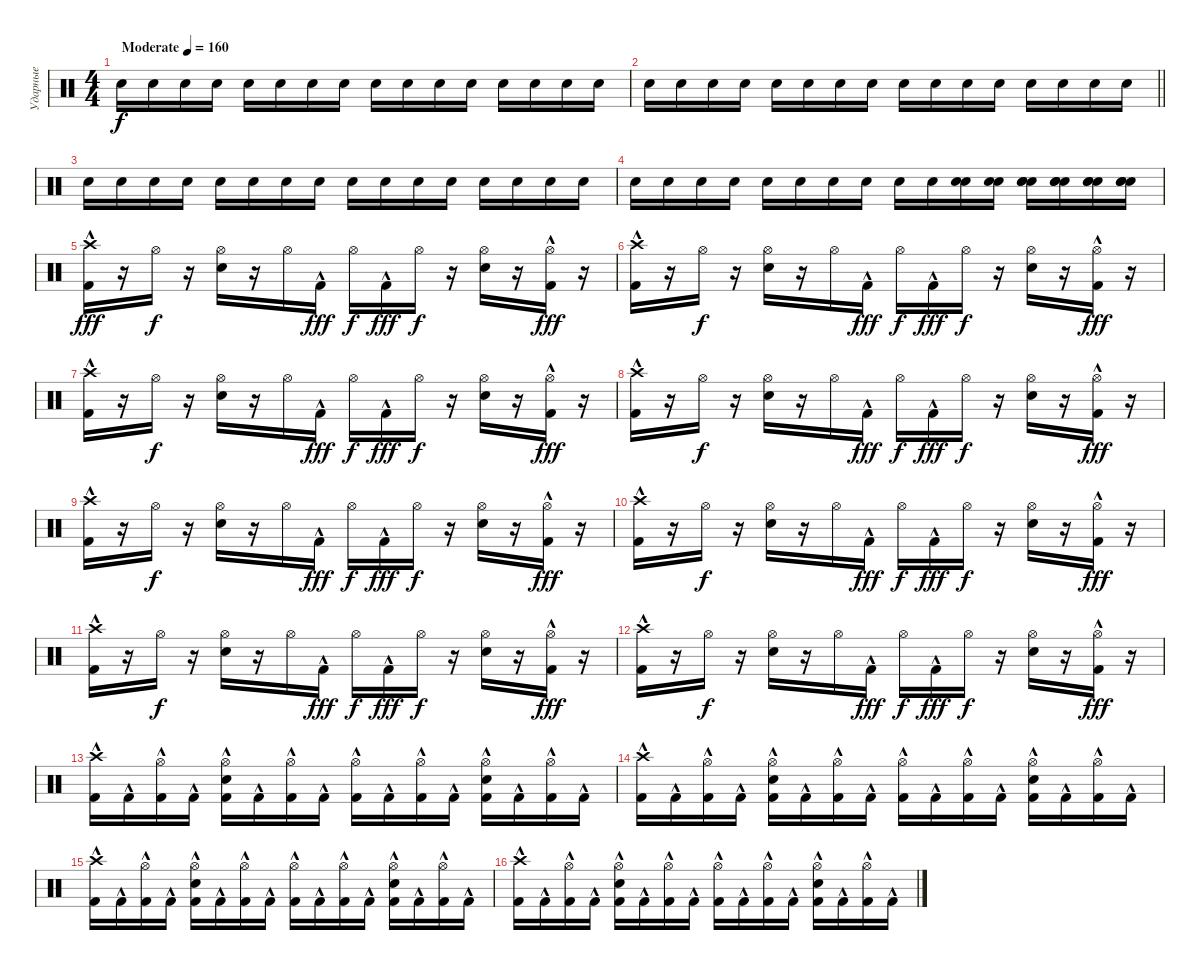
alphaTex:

\track ("Ударные" "Ударные") {instrument percussion}
\staff {score}
\articulation defaults
\ts (4 4)
\tempo (160 "Moderate")
\clef neutral
\ks c "Snare (hit) 2".16{dy f volume 16} "Snare (hit) 2".16 "Snare (hit) 2".16 "Snare (hit) 2".16 "Snare (hit) 2".16 "Snare (hit) 2".16 "Snare (hit) 2".16 "Snare (hit) 2".16 "Snare (hit) 2".16 "Snare (hit) 2".16 "Snare (hit) 2".16 "Snare (hit) 2".16 "Snare (hit) 2".16 "Snare (hit) 2".16 "Snare (hit) 2".16 "Snare (hit) 2".16
|
\barLineRight lightlight "Snare (hit) 2".16 "Snare (hit) 2".16 "Snare (hit) 2".16 "Snare (hit) 2".16 "Snare (hit) 2".16 "Snare (hit) 2".16 "Snare (hit) 2".16 "Snare (hit) 2".16 "Snare (hit) 2".16 "Snare (hit) 2".16 "Snare (hit) 2".16 "Snare (hit) 2".16 "Snare (hit) 2".16 "Snare (hit) 2".16 "Snare (hit) 2".16 "Snare (hit) 2".16
|
"Snare (hit) 2".16 "Snare (hit) 2".16 "Snare (hit) 2".16 "Snare (hit) 2".16 "Snare (hit) 2".16 "Snare (hit) 2".16 "Snare (hit) 2".16 "Snare (hit) 2".16 "Snare (hit) 2".16 "Snare (hit) 2".16 "Snare (hit) 2".16 "Snare (hit) 2".16 "Snare (hit) 2".16 "Snare (hit) 2".16 "Snare (hit) 2".16 "Snare (hit) 2".16 |
"Snare (hit) 2".16 "Snare (hit) 2".16 "Snare (hit) 2".16 "Snare (hit) 2".16 "Snare (hit) 2".16 "Snare (hit) 2".16 "Snare (hit) 2".16 "Snare (hit) 2".16 "Snare (hit) 2".16 "Snare (hit) 2".16 ("Snare (hit) 2" "Snare (hit) 2").16 ("Snare (hit) 2" "Snare (hit) 2").16 ("Snare (hit) 2" "Snare (hit) 2" "Snare (hit) 2").16 ("Snare (hit) 2" "Snare (hit) 2" "Snare (hit) 2").16 ("Snare (hit) 2" "Snare (hit) 2" "Snare (hit) 2").16 ("Snare (hit) 2" "Snare (hit) 2" "Snare (hit) 2").16 |
("Crash high (hit)" "Kick (hit) 2"{hac}).16{dy fff} r.16 "Hi-Hat (open)".16{dy f} r.16 ("Hi-Hat (open)" "Snare (hit) 2").16 r.16 "Hi-Hat (open)".16 "Kick (hit) 2"{hac}.16{dy fff} "Hi-Hat (open)".16{dy f} "Kick (hit) 2"{hac}.16{dy fff} "Hi-Hat (open)".16{dy f} r.16 ("Hi-Hat (open)" "Snare (hit) 2").16 r.16 ("Hi-Hat (open)" "Kick (hit) 2"{hac}).16{dy fff} r.16 |
("Crash high (hit)" "Kick (hit) 2"{hac}).16 r.16 "Hi-Hat (open)".16{dy f} r.16 ("Hi-Hat (open)" "Snare (hit) 2").16 r.16 "Hi-Hat (open)".16 "Kick (hit) 2"{hac}.16{dy fff} "Hi-Hat (open)".16{dy f} "Kick (hit) 2"{hac}.16{dy fff} "Hi-Hat (open)".16{dy f} r.16 ("Hi-Hat (open)" "Snare (hit) 2").16 r.16 ("Hi-Hat (open)" "Kick (hit) 2"{hac}).16{dy fff} r.16 |
("Crash high (hit)" "Kick (hit) 2"{hac}).16 r.16 "Hi-Hat (open)".16{dy f} r.16 ("Hi-Hat (open)" "Snare (hit) 2").16 r.16 "Hi-Hat (open)".16 "Kick (hit) 2"{hac}.16{dy fff} "Hi-Hat (open)".16{dy f} "Kick (hit) 2"{hac}.16{dy fff} "Hi-Hat (open)".16{dy f} r.16 ("Hi-Hat (open)" "Snare (hit) 2").16 r.16 ("Hi-Hat (open)" "Kick (hit) 2"{hac}).16{dy fff} r.16 |
("Crash high (hit)" "Kick (hit) 2"{hac}).16 r.16 "Hi-Hat (open)".16{dy f} r.16 ("Hi-Hat (open)" "Snare (hit) 2").16 r.16 "Hi-Hat (open)".16 "Kick (hit) 2"{hac}.16{dy fff} "Hi-Hat (open)".16{dy f} "Kick (hit) 2"{hac}.16{dy fff} "Hi-Hat (open)".16{dy f} r.16 ("Hi-Hat (open)" "Snare (hit) 2").16 r.16 ("Hi-Hat (open)" "Kick (hit) 2"{hac}).16{dy fff} r.16 |
("Crash high (hit)" "Kick (hit) 2"{hac}).16 r.16 "Hi-Hat (open)".16{dy f} r.16 ("Hi-Hat (open)" "Snare (hit) 2").16 r.16 "Hi-Hat (open)".16 "Kick (hit) 2"{hac}.16{dy fff} "Hi-Hat (open)".16{dy f} "Kick (hit) 2"{hac}.16{dy fff} "Hi-Hat (open)".16{dy f} r.16 ("Hi-Hat (open)" "Snare (hit) 2").16 r.16 ("Hi-Hat (open)" "Kick (hit) 2"{hac}).16{dy fff} r.16 |
("Crash high (hit)" "Kick (hit) 2"{hac}).16 r.16 "Hi-Hat (open)".16{dy f} r.16 ("Hi-Hat (open)" "Snare (hit) 2").16 r.16 "Hi-Hat (open)".16 "Kick (hit) 2"{hac}.16{dy fff} "Hi-Hat (open)".16{dy f} "Kick (hit) 2"{hac}.16{dy fff} "Hi-Hat (open)".16{dy f} r.16 ("Hi-Hat (open)" "Snare (hit) 2").16 r.16 ("Hi-Hat (open)" "Kick (hit) 2"{hac}).16{dy fff} r.16 |
("Crash high (hit)" "Kick (hit) 2"{hac}).16 r.16 "Hi-Hat (open)".16{dy f} r.16 ("Hi-Hat (open)" "Snare (hit) 2").16 r.16 "Hi-Hat (open)".16 "Kick (hit) 2"{hac}.16{dy fff} "Hi-Hat (open)".16{dy f} "Kick (hit) 2"{hac}.16{dy fff} "Hi-Hat (open)".16{dy f} r.16 ("Hi-Hat (open)" "Snare (hit) 2").16 r.16 ("Hi-Hat (open)" "Kick (hit) 2"{hac}).16{dy fff} r.16 |
("Crash high (hit)" "Kick (hit) 2"{hac}).16 r.16 "Hi-Hat (open)".16{dy f} r.16 ("Hi-Hat (open)" "Snare (hit) 2").16 r.16 "Hi-Hat (open)".16 "Kick (hit) 2"{hac}.16{dy fff} "Hi-Hat (open)".16{dy f} "Kick (hit) 2"{hac}.16{dy fff} "Hi-Hat (open)".16{dy f} r.16 ("Hi-Hat (open)" "Snare (hit) 2").16 r.16 ("Hi-Hat (open)" "Kick (hit) 2"{hac}).16{dy fff} r.16 |
("Crash high (hit)" "Kick (hit) 2"{hac}).16 "Kick (hit) 2"{hac}.16 ("Hi-Hat (open)" "Kick (hit) 2"{hac}).16 "Kick (hit) 2"{hac}.16 ("Hi-Hat (open)" "Snare (hit) 2" "Kick (hit) 2"{hac}).16 "Kick (hit) 2"{hac}.16 ("Hi-Hat (open)" "Kick (hit) 2"{hac}).16 "Kick (hit) 2"{hac}.16 ("Hi-Hat (open)" "Kick (hit) 2"{hac}).16 "Kick (hit) 2"{hac}.16 ("Hi-Hat (open)" "Kick (hit) 2"{hac}).16 "Kick (hit) 2"{hac}.16 ("Hi-Hat (open)" "Snare (hit) 2" "Kick (hit) 2"{hac}).16 "Kick (hit) 2"{hac}.16 ("Hi-Hat (open)" "Kick (hit) 2"{hac}).16 "Kick (hit) 2"{hac}.16 |
("Crash high (hit)" "Kick (hit) 2"{hac}).16 "Kick (hit) 2"{hac}.16 ("Hi-Hat (open)" "Kick (hit) 2"{hac}).16 "Kick (hit) 2"{hac}.16 ("Hi-Hat (open)" "Snare (hit) 2" "Kick (hit) 2"{hac}).16 "Kick (hit) 2"{hac}.16 ("Hi-Hat (open)" "Kick (hit) 2"{hac}).16 "Kick (hit) 2"{hac}.16 ("Hi-Hat (open)" "Kick (hit) 2"{hac}).16 "Kick (hit) 2"{hac}.16 ("Hi-Hat (open)" "Kick (hit) 2"{hac}).16 "Kick (hit) 2"{hac}.16 ("Hi-Hat (open)" "Snare (hit) 2" "Kick (hit) 2"{hac}).16 "Kick (hit) 2"{hac}.16 ("Hi-Hat (open)" "Kick (hit) 2"{hac}).16 "Kick (hit) 2"{hac}.16 |
("Crash high (hit)" "Kick (hit) 2"{hac}).16 "Kick (hit) 2"{hac}.16 ("Hi-Hat (open)" "Kick (hit) 2"{hac}).16 "Kick (hit) 2"{hac}.16 ("Hi-Hat (open)" "Snare (hit) 2" "Kick (hit) 2"{hac}).16 "Kick (hit) 2"{hac}.16 ("Hi-Hat (open)" "Kick (hit) 2"{hac}).16 "Kick (hit) 2"{hac}.16 ("Hi-Hat (open)" "Kick (hit) 2"{hac}).16 "Kick (hit) 2"{hac}.16 ("Hi-Hat (open)" "Kick (hit) 2"{hac}).16 "Kick (hit) 2"{hac}.16 ("Hi-Hat (open)" "Snare (hit) 2" "Kick (hit) 2"{hac}).16 "Kick (hit) 2"{hac}.16 ("Hi-Hat (open)" "Kick (hit) 2"{hac}).16 "Kick (hit) 2"{hac}.16 |
("Crash high (hit)" "Kick (hit) 2"{hac}).16 "Kick (hit) 2"{hac}.16 ("Hi-Hat (open)" "Kick (hit) 2"{hac}).16 "Kick (hit) 2"{hac}.16 ("Hi-Hat (open)" "Snare (hit) 2" "Kick (hit) 2"{hac}).16 "Kick (hit) 2"{hac}.16 ("Hi-Hat (open)" "Kick (hit) 2"{hac}).16 "Kick (hit) 2"{hac}.16 ("Hi-Hat (open)" "Kick (hit) 2"{hac}).16 "Kick (hit) 2"{hac}.16 ("Hi-Hat (open)" "Kick (hit) 2"{hac}).16 "Kick (hit) 2"{hac}.16 ("Hi-Hat (open)" "Snare (hit) 2" "Kick (hit) 2"{hac}).16 "Kick (hit) 2"{hac}.16 ("Hi-Hat (open)" "Kick (hit) 2"{hac}).16 "Kick (hit) 2"{hac}.16
